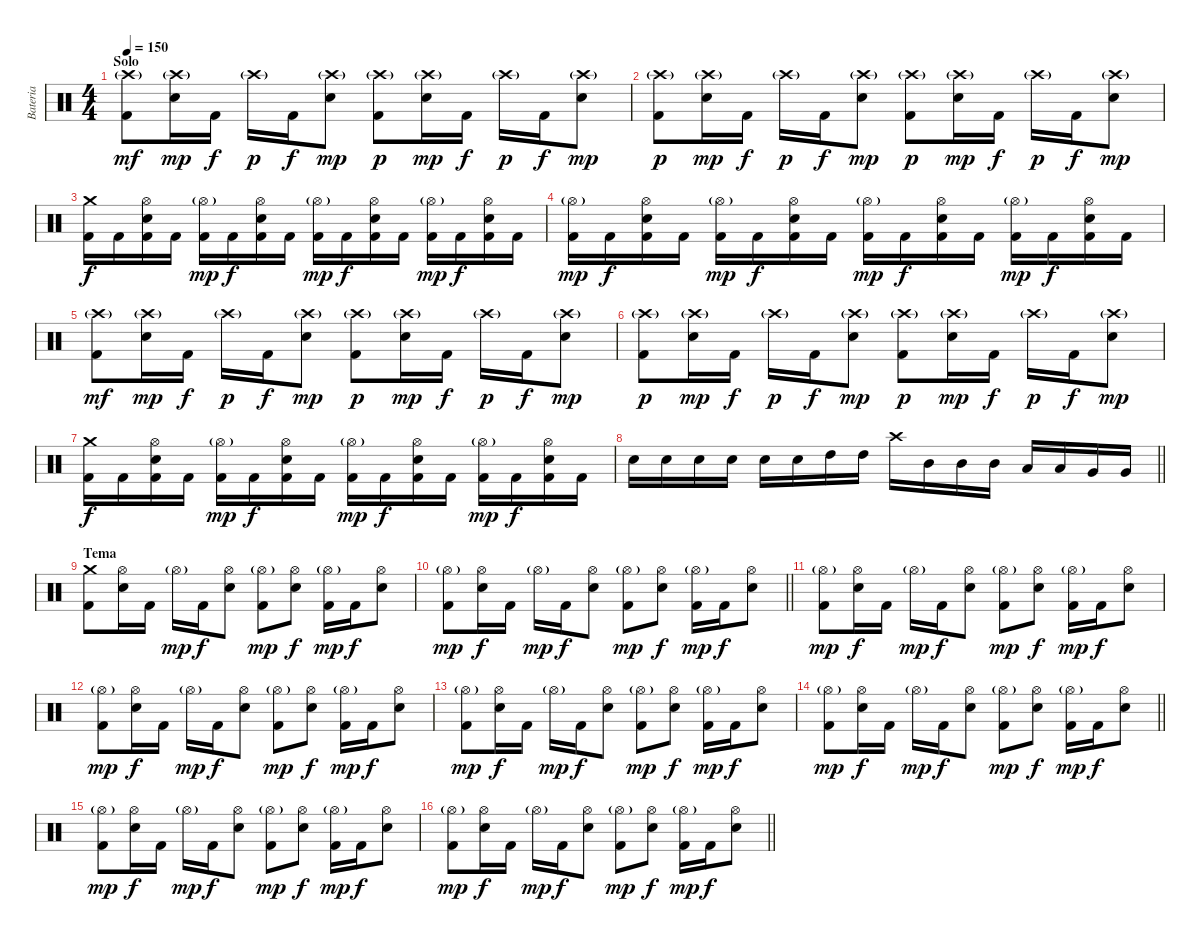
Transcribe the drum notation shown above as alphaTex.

\track ("Bateria" "Bateria") {instrument percussion}
\staff {score}
\articulation defaults
\ts (4 4)
\section ("" "Solo")
\tempo 150
\clef neutral
\ks c
("Crash high (hit)"{g} "Kick (hit) 2").8{dy mf} ("Crash high (hit)"{g} "Electric Snare (hit)").16{dy mp} "Kick (hit) 2".16{dy f} "Crash high (hit)"{g}.16{dy p} "Kick (hit) 2".16{dy f} ("Crash high (hit)"{g} "Electric Snare (hit)").8{dy mp} ("Crash high (hit)"{g} "Kick (hit) 2").8{dy p} ("Crash high (hit)"{g} "Electric Snare (hit)").16{dy mp} "Kick (hit) 2".16{dy f} "Crash high (hit)"{g}.16{dy p} "Kick (hit) 2".16{dy f} ("Crash high (hit)"{g} "Electric Snare (hit)").8{dy mp} |
("Crash high (hit)"{g} "Kick (hit) 2").8{dy p} ("Crash high (hit)"{g} "Electric Snare (hit)").16{dy mp} "Kick (hit) 2".16{dy f} "Crash high (hit)"{g}.16{dy p} "Kick (hit) 2".16{dy f} ("Crash high (hit)"{g} "Electric Snare (hit)").8{dy mp} ("Crash high (hit)"{g} "Kick (hit) 2").8{dy p} ("Crash high (hit)"{g} "Electric Snare (hit)").16{dy mp} "Kick (hit) 2".16{dy f} "Crash high (hit)"{g}.16{dy p} "Kick (hit) 2".16{dy f} ("Crash high (hit)"{g} "Electric Snare (hit)").8{dy mp} |
("Crash medium (hit)" "Kick (hit) 2").16{dy f} "Kick (hit) 2".16 ("Hi-Hat (open)" "Electric Snare (hit)" "Kick (hit) 2").16 "Kick (hit) 2".16 ("Hi-Hat (open)"{g} "Kick (hit) 2").16{dy mp} "Kick (hit) 2".16{dy f} ("Hi-Hat (open)" "Electric Snare (hit)" "Kick (hit) 2").16 "Kick (hit) 2".16 ("Hi-Hat (open)"{g} "Kick (hit) 2").16{dy mp} "Kick (hit) 2".16{dy f} ("Hi-Hat (open)" "Electric Snare (hit)" "Kick (hit) 2").16 "Kick (hit) 2".16 ("Hi-Hat (open)"{g} "Kick (hit) 2").16{dy mp} "Kick (hit) 2".16{dy f} ("Hi-Hat (open)" "Electric Snare (hit)" "Kick (hit) 2").16 "Kick (hit) 2".16 |
("Hi-Hat (open)"{g} "Kick (hit) 2").16{dy mp} "Kick (hit) 2".16{dy f} ("Hi-Hat (open)" "Electric Snare (hit)" "Kick (hit) 2").16 "Kick (hit) 2".16 ("Hi-Hat (open)"{g} "Kick (hit) 2").16{dy mp} "Kick (hit) 2".16{dy f} ("Hi-Hat (open)" "Electric Snare (hit)" "Kick (hit) 2").16 "Kick (hit) 2".16 ("Hi-Hat (open)"{g} "Kick (hit) 2").16{dy mp} "Kick (hit) 2".16{dy f} ("Hi-Hat (open)" "Electric Snare (hit)" "Kick (hit) 2").16 "Kick (hit) 2".16 ("Hi-Hat (open)"{g} "Kick (hit) 2").16{dy mp} "Kick (hit) 2".16{dy f} ("Hi-Hat (open)" "Electric Snare (hit)" "Kick (hit) 2").16 "Kick (hit) 2".16 |
("Crash high (hit)"{g} "Kick (hit) 2").8{dy mf} ("Crash high (hit)"{g} "Electric Snare (hit)").16{dy mp} "Kick (hit) 2".16{dy f} "Crash high (hit)"{g}.16{dy p} "Kick (hit) 2".16{dy f} ("Crash high (hit)"{g} "Electric Snare (hit)").8{dy mp} ("Crash high (hit)"{g} "Kick (hit) 2").8{dy p} ("Crash high (hit)"{g} "Electric Snare (hit)").16{dy mp} "Kick (hit) 2".16{dy f} "Crash high (hit)"{g}.16{dy p} "Kick (hit) 2".16{dy f} ("Crash high (hit)"{g} "Electric Snare (hit)").8{dy mp} |
("Crash high (hit)"{g} "Kick (hit) 2").8{dy p} ("Crash high (hit)"{g} "Electric Snare (hit)").16{dy mp} "Kick (hit) 2".16{dy f} "Crash high (hit)"{g}.16{dy p} "Kick (hit) 2".16{dy f} ("Crash high (hit)"{g} "Electric Snare (hit)").8{dy mp} ("Crash high (hit)"{g} "Kick (hit) 2").8{dy p} ("Crash high (hit)"{g} "Electric Snare (hit)").16{dy mp} "Kick (hit) 2".16{dy f} "Crash high (hit)"{g}.16{dy p} "Kick (hit) 2".16{dy f} ("Crash high (hit)"{g} "Electric Snare (hit)").8{dy mp} |
("Crash medium (hit)" "Kick (hit) 2").16{dy f} "Kick (hit) 2".16 ("Hi-Hat (open)" "Electric Snare (hit)" "Kick (hit) 2").16 "Kick (hit) 2".16 ("Hi-Hat (open)"{g} "Kick (hit) 2").16{dy mp} "Kick (hit) 2".16{dy f} ("Hi-Hat (open)" "Electric Snare (hit)" "Kick (hit) 2").16 "Kick (hit) 2".16 ("Hi-Hat (open)"{g} "Kick (hit) 2").16{dy mp} "Kick (hit) 2".16{dy f} ("Hi-Hat (open)" "Electric Snare (hit)" "Kick (hit) 2").16 "Kick (hit) 2".16 ("Hi-Hat (open)"{g} "Kick (hit) 2").16{dy mp} "Kick (hit) 2".16{dy f} ("Hi-Hat (open)" "Electric Snare (hit)" "Kick (hit) 2").16 "Kick (hit) 2".16 |
\barLineRight lightlight "Electric Snare (hit)".16 "Electric Snare (hit)".16 "Electric Snare (hit)".16 "Electric Snare (hit)".16 "Electric Snare (hit)".16 "Electric Snare (hit)".16 "High Tom (hit)".16 "High Tom (hit)".16 "Crash high (hit)".16 "Mid Tom (hit)".16 "Mid Tom (hit)".16 "Mid Tom (hit)".16 "Low Tom (hit)".16 "Low Tom (hit)".16 "Very Low Tom (hit)".16 "Very Low Tom (hit)".16
|
\section ("" "Tema")
("Crash medium (hit)" "Kick (hit) 2").8 ("Hi-Hat (open)" "Electric Snare (hit)").16 "Kick (hit) 2".16 "Hi-Hat (open)"{g}.16{dy mp} "Kick (hit) 2".16{dy f} ("Hi-Hat (open)" "Electric Snare (hit)").8 ("Hi-Hat (open)"{g} "Kick (hit) 2").8{dy mp} ("Hi-Hat (open)" "Electric Snare (hit)").8{dy f} ("Hi-Hat (open)"{g} "Kick (hit) 2").16{dy mp} "Kick (hit) 2".16{dy f} ("Hi-Hat (open)" "Electric Snare (hit)").8 |
\barLineRight lightlight
("Hi-Hat (open)"{g} "Kick (hit) 2").8{dy mp} ("Hi-Hat (open)" "Electric Snare (hit)").16{dy f} "Kick (hit) 2".16 "Hi-Hat (open)"{g}.16{dy mp} "Kick (hit) 2".16{dy f} ("Hi-Hat (open)" "Electric Snare (hit)").8 ("Hi-Hat (open)"{g} "Kick (hit) 2").8{dy mp} ("Hi-Hat (open)" "Electric Snare (hit)").8{dy f} ("Hi-Hat (open)"{g} "Kick (hit) 2").16{dy mp} "Kick (hit) 2".16{dy f} ("Hi-Hat (open)" "Electric Snare (hit)").8 |
("Hi-Hat (open)"{g} "Kick (hit) 2").8{dy mp} ("Hi-Hat (open)" "Electric Snare (hit)").16{dy f} "Kick (hit) 2".16 "Hi-Hat (open)"{g}.16{dy mp} "Kick (hit) 2".16{dy f} ("Hi-Hat (open)" "Electric Snare (hit)").8 ("Hi-Hat (open)"{g} "Kick (hit) 2").8{dy mp} ("Hi-Hat (open)" "Electric Snare (hit)").8{dy f} ("Hi-Hat (open)"{g} "Kick (hit) 2").16{dy mp} "Kick (hit) 2".16{dy f} ("Hi-Hat (open)" "Electric Snare (hit)").8 |
("Hi-Hat (open)"{g} "Kick (hit) 2").8{dy mp} ("Hi-Hat (open)" "Electric Snare (hit)").16{dy f} "Kick (hit) 2".16 "Hi-Hat (open)"{g}.16{dy mp} "Kick (hit) 2".16{dy f} ("Hi-Hat (open)" "Electric Snare (hit)").8 ("Hi-Hat (open)"{g} "Kick (hit) 2").8{dy mp} ("Hi-Hat (open)" "Electric Snare (hit)").8{dy f} ("Hi-Hat (open)"{g} "Kick (hit) 2").16{dy mp} "Kick (hit) 2".16{dy f} ("Hi-Hat (open)" "Electric Snare (hit)").8 |
("Hi-Hat (open)"{g} "Kick (hit) 2").8{dy mp} ("Hi-Hat (open)" "Electric Snare (hit)").16{dy f} "Kick (hit) 2".16 "Hi-Hat (open)"{g}.16{dy mp} "Kick (hit) 2".16{dy f} ("Hi-Hat (open)" "Electric Snare (hit)").8 ("Hi-Hat (open)"{g} "Kick (hit) 2").8{dy mp} ("Hi-Hat (open)" "Electric Snare (hit)").8{dy f} ("Hi-Hat (open)"{g} "Kick (hit) 2").16{dy mp} "Kick (hit) 2".16{dy f} ("Hi-Hat (open)" "Electric Snare (hit)").8 |
\barLineRight lightlight
("Hi-Hat (open)"{g} "Kick (hit) 2").8{dy mp} ("Hi-Hat (open)" "Electric Snare (hit)").16{dy f} "Kick (hit) 2".16 "Hi-Hat (open)"{g}.16{dy mp} "Kick (hit) 2".16{dy f} ("Hi-Hat (open)" "Electric Snare (hit)").8 ("Hi-Hat (open)"{g} "Kick (hit) 2").8{dy mp} ("Hi-Hat (open)" "Electric Snare (hit)").8{dy f} ("Hi-Hat (open)"{g} "Kick (hit) 2").16{dy mp} "Kick (hit) 2".16{dy f} ("Hi-Hat (open)" "Electric Snare (hit)").8 |
("Hi-Hat (open)"{g} "Kick (hit) 2").8{dy mp} ("Hi-Hat (open)" "Electric Snare (hit)").16{dy f} "Kick (hit) 2".16 "Hi-Hat (open)"{g}.16{dy mp} "Kick (hit) 2".16{dy f} ("Hi-Hat (open)" "Electric Snare (hit)").8 ("Hi-Hat (open)"{g} "Kick (hit) 2").8{dy mp} ("Hi-Hat (open)" "Electric Snare (hit)").8{dy f} ("Hi-Hat (open)"{g} "Kick (hit) 2").16{dy mp} "Kick (hit) 2".16{dy f} ("Hi-Hat (open)" "Electric Snare (hit)").8 |
\barLineRight lightlight
("Hi-Hat (open)"{g} "Kick (hit) 2").8{dy mp} ("Hi-Hat (open)" "Electric Snare (hit)").16{dy f} "Kick (hit) 2".16 "Hi-Hat (open)"{g}.16{dy mp} "Kick (hit) 2".16{dy f} ("Hi-Hat (open)" "Electric Snare (hit)").8 ("Hi-Hat (open)"{g} "Kick (hit) 2").8{dy mp} ("Hi-Hat (open)" "Electric Snare (hit)").8{dy f} ("Hi-Hat (open)"{g} "Kick (hit) 2").16{dy mp} "Kick (hit) 2".16{dy f} ("Hi-Hat (open)" "Electric Snare (hit)").8
